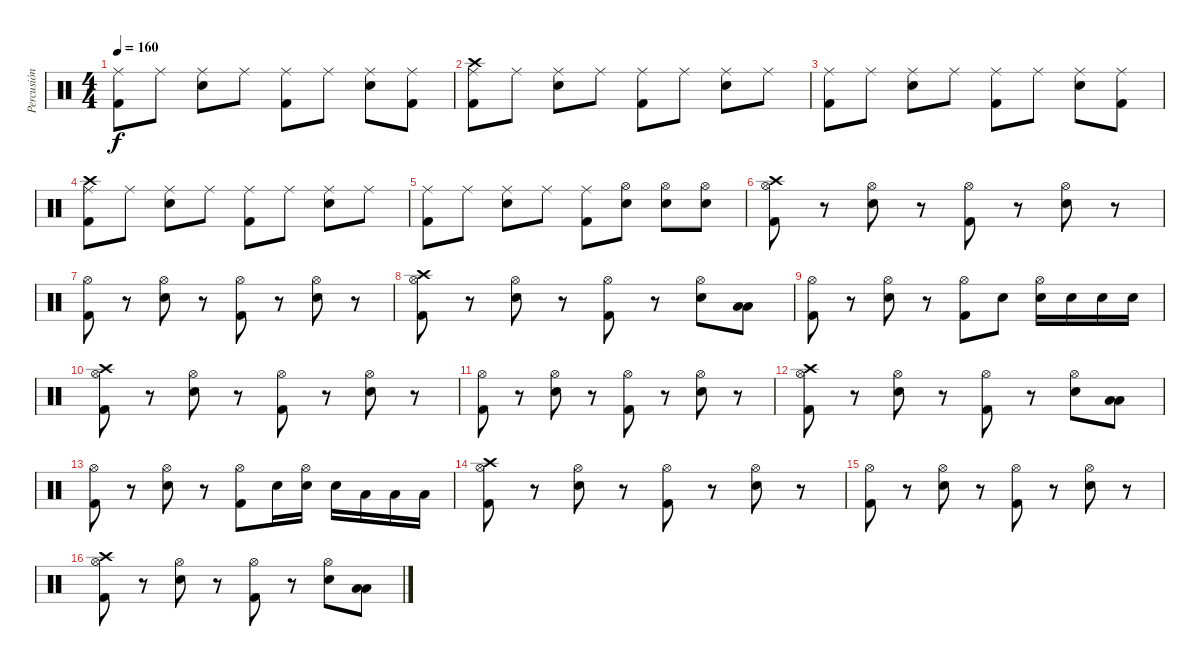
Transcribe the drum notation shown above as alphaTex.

\track ("Percusión" "Percusión") {instrument percussion}
\staff {score}
\articulation defaults
\ts (4 4)
\tempo 160
\clef neutral
\ks c
("Ride (middle)" "Kick (hit) 2").8{dy f} "Ride (middle)".8 ("Ride (middle)" "Snare (hit) 2").8 "Ride (middle)".8 ("Ride (middle)" "Kick (hit) 2").8 "Ride (middle)".8 ("Ride (middle)" "Snare (hit) 2").8 ("Ride (middle)" "Kick (hit) 2").8 |
("Crash high (hit)" "Ride (middle)" "Kick (hit) 2").8 "Ride (middle)".8 ("Ride (middle)" "Snare (hit) 2").8 "Ride (middle)".8 ("Ride (middle)" "Kick (hit) 2").8 "Ride (middle)".8 ("Ride (middle)" "Snare (hit) 2").8 "Ride (middle)".8 |
("Ride (middle)" "Kick (hit) 2").8 "Ride (middle)".8 ("Ride (middle)" "Snare (hit) 2").8 "Ride (middle)".8 ("Ride (middle)" "Kick (hit) 2").8 "Ride (middle)".8 ("Ride (middle)" "Snare (hit) 2").8 ("Ride (middle)" "Kick (hit) 2").8 |
("Crash high (hit)" "Ride (middle)" "Kick (hit) 2").8 "Ride (middle)".8 ("Ride (middle)" "Snare (hit) 2").8 "Ride (middle)".8 ("Ride (middle)" "Kick (hit) 2").8 "Ride (middle)".8 ("Ride (middle)" "Snare (hit) 2").8 "Ride (middle)".8 |
("Ride (middle)" "Kick (hit) 2").8 "Ride (middle)".8 ("Ride (middle)" "Snare (hit) 2").8 "Ride (middle)".8 ("Ride (middle)" "Kick (hit) 2").8 ("Hi-Hat (open)" "Snare (hit) 2").8 ("Hi-Hat (open)" "Snare (hit) 2").8 ("Hi-Hat (open)" "Snare (hit) 2").8 |
("Crash high (hit)" "Hi-Hat (open)" "Kick (hit) 2").8 r.8 ("Hi-Hat (open)" "Snare (hit) 2").8 r.8 ("Hi-Hat (open)" "Kick (hit) 2").8 r.8 ("Hi-Hat (open)" "Snare (hit) 2").8 r.8 |
("Hi-Hat (open)" "Kick (hit) 2").8 r.8 ("Hi-Hat (open)" "Snare (hit) 2").8 r.8 ("Hi-Hat (open)" "Kick (hit) 2").8 r.8 ("Hi-Hat (open)" "Snare (hit) 2").8 r.8 |
("Crash high (hit)" "Hi-Hat (open)" "Kick (hit) 2").8 r.8 ("Hi-Hat (open)" "Snare (hit) 2").8 r.8 ("Hi-Hat (open)" "Kick (hit) 2").8 r.8 ("Hi-Hat (open)" "Snare (hit) 2").8 ("Low Tom (hit)" "Low Tom (hit)").8 |
("Hi-Hat (open)" "Kick (hit) 2").8 r.8 ("Hi-Hat (open)" "Snare (hit) 2").8 r.8 ("Hi-Hat (open)" "Kick (hit) 2").8 "Snare (hit) 2".8 ("Hi-Hat (open)" "Snare (hit) 2").16 "Snare (hit) 2".16 "Snare (hit) 2".16 "Snare (hit) 2".16 |
("Crash high (hit)" "Hi-Hat (open)" "Kick (hit) 2").8 r.8 ("Hi-Hat (open)" "Snare (hit) 2").8 r.8 ("Hi-Hat (open)" "Kick (hit) 2").8 r.8 ("Hi-Hat (open)" "Snare (hit) 2").8 r.8 |
("Hi-Hat (open)" "Kick (hit) 2").8 r.8 ("Hi-Hat (open)" "Snare (hit) 2").8 r.8 ("Hi-Hat (open)" "Kick (hit) 2").8 r.8 ("Hi-Hat (open)" "Snare (hit) 2").8 r.8 |
("Crash high (hit)" "Hi-Hat (open)" "Kick (hit) 2").8 r.8 ("Hi-Hat (open)" "Snare (hit) 2").8 r.8 ("Hi-Hat (open)" "Kick (hit) 2").8 r.8 ("Hi-Hat (open)" "Snare (hit) 2").8 ("Low Tom (hit)" "Low Tom (hit)").8 |
("Hi-Hat (open)" "Kick (hit) 2").8 r.8 ("Hi-Hat (open)" "Snare (hit) 2").8 r.8 ("Hi-Hat (open)" "Kick (hit) 2").8 "Snare (hit) 2".16 ("Hi-Hat (open)" "Snare (hit) 2").16 "Snare (hit) 2".16 "Low Tom (hit)".16 "Low Tom (hit)".16 "Low Tom (hit)".16 |
("Crash high (hit)" "Hi-Hat (open)" "Kick (hit) 2").8 r.8 ("Hi-Hat (open)" "Snare (hit) 2").8 r.8 ("Hi-Hat (open)" "Kick (hit) 2").8 r.8 ("Hi-Hat (open)" "Snare (hit) 2").8 r.8 |
("Hi-Hat (open)" "Kick (hit) 2").8 r.8 ("Hi-Hat (open)" "Snare (hit) 2").8 r.8 ("Hi-Hat (open)" "Kick (hit) 2").8 r.8 ("Hi-Hat (open)" "Snare (hit) 2").8 r.8 |
("Crash high (hit)" "Hi-Hat (open)" "Kick (hit) 2").8 r.8 ("Hi-Hat (open)" "Snare (hit) 2").8 r.8 ("Hi-Hat (open)" "Kick (hit) 2").8 r.8 ("Hi-Hat (open)" "Snare (hit) 2").8 ("Low Tom (hit)" "Low Tom (hit)").8
